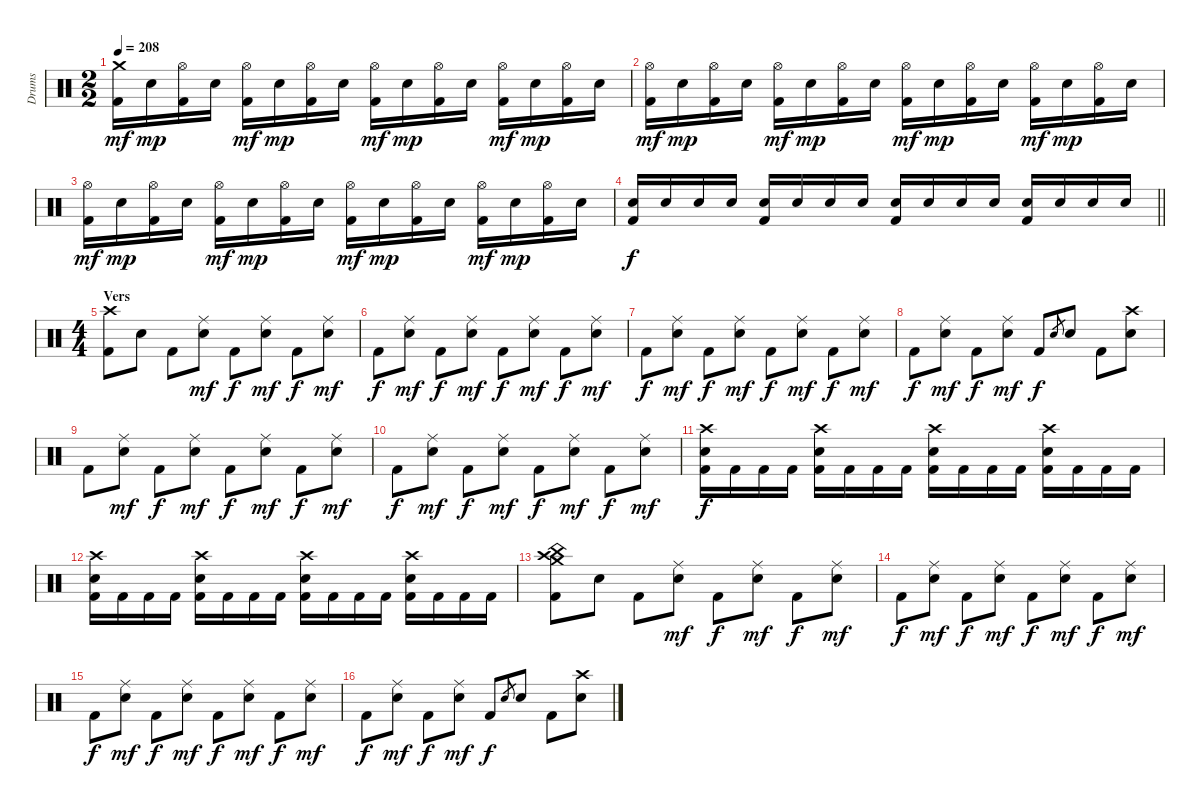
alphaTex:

\track ("Drums" "Drums") {instrument percussion}
\staff {score}
\articulation defaults
\ts (2 2)
\tempo 208
\clef neutral
\ks c
("Crash medium (hit)" "Kick (hit) 2").16{dy mf} "Electric Snare (hit)".16{dy mp} ("Hi-Hat (open)" "Kick (hit) 2").16 "Electric Snare (hit)".16 ("Hi-Hat (open)" "Kick (hit) 2").16{dy mf} "Electric Snare (hit)".16{dy mp} ("Hi-Hat (open)" "Kick (hit) 2").16 "Electric Snare (hit)".16 ("Hi-Hat (open)" "Kick (hit) 2").16{dy mf} "Electric Snare (hit)".16{dy mp} ("Hi-Hat (open)" "Kick (hit) 2").16 "Electric Snare (hit)".16 ("Hi-Hat (open)" "Kick (hit) 2").16{dy mf} "Electric Snare (hit)".16{dy mp} ("Hi-Hat (open)" "Kick (hit) 2").16 "Electric Snare (hit)".16 |
("Hi-Hat (open)" "Kick (hit) 2").16{dy mf} "Electric Snare (hit)".16{dy mp} ("Hi-Hat (open)" "Kick (hit) 2").16 "Electric Snare (hit)".16 ("Hi-Hat (open)" "Kick (hit) 2").16{dy mf} "Electric Snare (hit)".16{dy mp} ("Hi-Hat (open)" "Kick (hit) 2").16 "Electric Snare (hit)".16 ("Hi-Hat (open)" "Kick (hit) 2").16{dy mf} "Electric Snare (hit)".16{dy mp} ("Hi-Hat (open)" "Kick (hit) 2").16 "Electric Snare (hit)".16 ("Hi-Hat (open)" "Kick (hit) 2").16{dy mf} "Electric Snare (hit)".16{dy mp} ("Hi-Hat (open)" "Kick (hit) 2").16 "Electric Snare (hit)".16 |
("Hi-Hat (open)" "Kick (hit) 2").16{dy mf} "Electric Snare (hit)".16{dy mp} ("Hi-Hat (open)" "Kick (hit) 2").16 "Electric Snare (hit)".16 ("Hi-Hat (open)" "Kick (hit) 2").16{dy mf} "Electric Snare (hit)".16{dy mp} ("Hi-Hat (open)" "Kick (hit) 2").16 "Electric Snare (hit)".16 ("Hi-Hat (open)" "Kick (hit) 2").16{dy mf} "Electric Snare (hit)".16{dy mp} ("Hi-Hat (open)" "Kick (hit) 2").16 "Electric Snare (hit)".16 ("Hi-Hat (open)" "Kick (hit) 2").16{dy mf} "Electric Snare (hit)".16{dy mp} ("Hi-Hat (open)" "Kick (hit) 2").16 "Electric Snare (hit)".16 |
\barLineRight lightlight
("Electric Snare (hit)" "Kick (hit) 2").16{dy f} "Electric Snare (hit)".16 "Electric Snare (hit)".16 "Electric Snare (hit)".16 ("Electric Snare (hit)" "Kick (hit) 2").16 "Electric Snare (hit)".16 "Electric Snare (hit)".16 "Electric Snare (hit)".16 ("Electric Snare (hit)" "Kick (hit) 2").16 "Electric Snare (hit)".16 "Electric Snare (hit)".16 "Electric Snare (hit)".16 ("Electric Snare (hit)" "Kick (hit) 2").16 "Electric Snare (hit)".16 "Electric Snare (hit)".16 "Electric Snare (hit)".16 |
\ts (4 4)
\section ("" "Vers")
("Crash high (hit)" "Kick (hit) 2").8 "Electric Snare (hit)".8 "Kick (hit) 2".8 ("Ride (middle)" "Electric Snare (hit)").8{dy mf} "Kick (hit) 2".8{dy f} ("Ride (middle)" "Electric Snare (hit)").8{dy mf} "Kick (hit) 2".8{dy f} ("Ride (middle)" "Electric Snare (hit)").8{dy mf} |
"Kick (hit) 2".8{dy f} ("Ride (middle)" "Electric Snare (hit)").8{dy mf} "Kick (hit) 2".8{dy f} ("Ride (middle)" "Electric Snare (hit)").8{dy mf} "Kick (hit) 2".8{dy f} ("Ride (middle)" "Electric Snare (hit)").8{dy mf} "Kick (hit) 2".8{dy f} ("Ride (middle)" "Electric Snare (hit)").8{dy mf} |
"Kick (hit) 2".8{dy f} ("Ride (middle)" "Electric Snare (hit)").8{dy mf} "Kick (hit) 2".8{dy f} ("Ride (middle)" "Electric Snare (hit)").8{dy mf} "Kick (hit) 2".8{dy f} ("Ride (middle)" "Electric Snare (hit)").8{dy mf} "Kick (hit) 2".8{dy f} ("Ride (middle)" "Electric Snare (hit)").8{dy mf} |
"Kick (hit) 2".8{dy f} ("Ride (middle)" "Electric Snare (hit)").8{dy mf} "Kick (hit) 2".8{dy f} ("Ride (middle)" "Electric Snare (hit)").8{dy mf} "Kick (hit) 2".8{dy f} "Electric Snare (hit)".8{gr} "Electric Snare (hit)".8 "Kick (hit) 2".8 ("Crash high (hit)" "Electric Snare (hit)").8 |
"Kick (hit) 2".8 ("Ride (middle)" "Electric Snare (hit)").8{dy mf} "Kick (hit) 2".8{dy f} ("Ride (middle)" "Electric Snare (hit)").8{dy mf} "Kick (hit) 2".8{dy f} ("Ride (middle)" "Electric Snare (hit)").8{dy mf} "Kick (hit) 2".8{dy f} ("Ride (middle)" "Electric Snare (hit)").8{dy mf} |
"Kick (hit) 2".8{dy f} ("Ride (middle)" "Electric Snare (hit)").8{dy mf} "Kick (hit) 2".8{dy f} ("Ride (middle)" "Electric Snare (hit)").8{dy mf} "Kick (hit) 2".8{dy f} ("Ride (middle)" "Electric Snare (hit)").8{dy mf} "Kick (hit) 2".8{dy f} ("Ride (middle)" "Electric Snare (hit)").8{dy mf} |
("Crash high (hit)" "Electric Snare (hit)" "Kick (hit) 2").16{dy f} "Kick (hit) 2".16 "Kick (hit) 2".16 "Kick (hit) 2".16 ("Crash high (hit)" "Electric Snare (hit)" "Kick (hit) 2").16 "Kick (hit) 2".16 "Kick (hit) 2".16 "Kick (hit) 2".16 ("Crash high (hit)" "Electric Snare (hit)" "Kick (hit) 2").16 "Kick (hit) 2".16 "Kick (hit) 2".16 "Kick (hit) 2".16 ("Crash high (hit)" "Electric Snare (hit)" "Kick (hit) 2").16 "Kick (hit) 2".16 "Kick (hit) 2".16 "Kick (hit) 2".16 |
("Crash high (hit)" "Electric Snare (hit)" "Kick (hit) 2").16 "Kick (hit) 2".16 "Kick (hit) 2".16 "Kick (hit) 2".16 ("Crash high (hit)" "Electric Snare (hit)" "Kick (hit) 2").16 "Kick (hit) 2".16 "Kick (hit) 2".16 "Kick (hit) 2".16 ("Crash high (hit)" "Electric Snare (hit)" "Kick (hit) 2").16 "Kick (hit) 2".16 "Kick (hit) 2".16 "Kick (hit) 2".16 ("Crash high (hit)" "Electric Snare (hit)" "Kick (hit) 2").16 "Kick (hit) 2".16 "Kick (hit) 2".16 "Kick (hit) 2".16 |
("Crash high (hit)" "Crash medium (hit)" "China (hit)" "Kick (hit) 2").8 "Electric Snare (hit)".8 "Kick (hit) 2".8 ("Ride (middle)" "Electric Snare (hit)").8{dy mf} "Kick (hit) 2".8{dy f} ("Ride (middle)" "Electric Snare (hit)").8{dy mf} "Kick (hit) 2".8{dy f} ("Ride (middle)" "Electric Snare (hit)").8{dy mf} |
"Kick (hit) 2".8{dy f} ("Ride (middle)" "Electric Snare (hit)").8{dy mf} "Kick (hit) 2".8{dy f} ("Ride (middle)" "Electric Snare (hit)").8{dy mf} "Kick (hit) 2".8{dy f} ("Ride (middle)" "Electric Snare (hit)").8{dy mf} "Kick (hit) 2".8{dy f} ("Ride (middle)" "Electric Snare (hit)").8{dy mf} |
"Kick (hit) 2".8{dy f} ("Ride (middle)" "Electric Snare (hit)").8{dy mf} "Kick (hit) 2".8{dy f} ("Ride (middle)" "Electric Snare (hit)").8{dy mf} "Kick (hit) 2".8{dy f} ("Ride (middle)" "Electric Snare (hit)").8{dy mf} "Kick (hit) 2".8{dy f} ("Ride (middle)" "Electric Snare (hit)").8{dy mf} |
"Kick (hit) 2".8{dy f} ("Ride (middle)" "Electric Snare (hit)").8{dy mf} "Kick (hit) 2".8{dy f} ("Ride (middle)" "Electric Snare (hit)").8{dy mf} "Kick (hit) 2".8{dy f} "Electric Snare (hit)".8{gr} "Electric Snare (hit)".8 "Kick (hit) 2".8 ("Crash high (hit)" "Electric Snare (hit)").8
